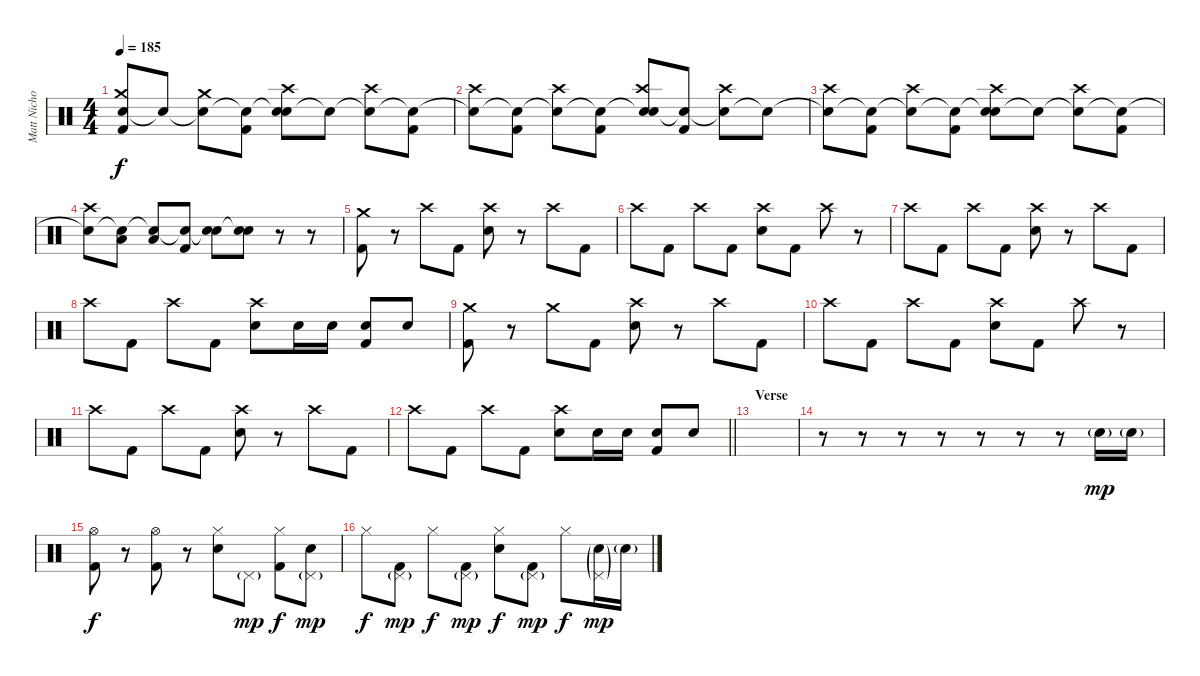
\track ("Matt Nicholls" "Matt Nicho") {instrument percussion}
\staff {score}
\articulation defaults
\ts (4 4)
\tempo 185
\clef neutral
\ks c
("Snare (hit)"{t} "Crash medium (hit)" "Kick (hit) 2").8{dy f} "Snare (hit)"{t}.8 ("Snare (hit)"{t} "Crash medium (hit)").8 ("Snare (hit)"{t} "Kick (hit) 2").8 ("Snare (hit)"{t} "Crash high (hit)" "Electric Snare (hit)").8 "Snare (hit)"{t}.8 ("Snare (hit)"{t} "Crash high (hit)").8 ("Snare (hit)"{t} "Kick (hit) 2").8 |
("Snare (hit)"{t} "Crash high (hit)").8 ("Snare (hit)"{t} "Kick (hit) 2").8 ("Snare (hit)"{t} "Crash high (hit)").8 ("Snare (hit)"{t} "Kick (hit) 2").8 ("Snare (hit)"{t} "Crash high (hit)" "Electric Snare (hit)").8 ("Snare (hit)"{t} "Kick (hit) 2").8 ("Snare (hit)"{t} "Crash high (hit)").8 "Snare (hit)"{t}.8 |
("Snare (hit)"{t} "Crash high (hit)").8 ("Snare (hit)"{t} "Kick (hit) 2").8 ("Snare (hit)"{t} "Crash high (hit)").8 ("Snare (hit)"{t} "Kick (hit) 2").8 ("Snare (hit)"{t} "Crash high (hit)" "Electric Snare (hit)").8 "Snare (hit)"{t}.8 ("Snare (hit)"{t} "Crash high (hit)").8 ("Snare (hit)"{t} "Kick (hit) 2").8 |
("Snare (hit)"{t} "Crash high (hit)").8 ("Snare (hit)"{t} "Low Floor Tom (hit)").8 ("Snare (hit)"{t} "Low Floor Tom (hit)").8 ("Snare (hit)"{t} "Kick (hit) 2").8 ("Snare (hit)"{t} "Electric Snare (hit)").8 ("Snare (hit)"{t} "Electric Snare (hit)").8 r.8 r.8 |
("Crash medium (hit)" "Kick (hit) 2").8 r.8 "Crash high (hit)".8 "Kick (hit) 2".8 ("Crash high (hit)" "Electric Snare (hit)").8 r.8 "Crash high (hit)".8 "Kick (hit) 2".8 |
"Crash high (hit)".8 "Kick (hit) 2".8 "Crash high (hit)".8 "Kick (hit) 2".8 ("Crash high (hit)" "Electric Snare (hit)").8 "Kick (hit) 2".8 "Crash high (hit)".8 r.8 |
"Crash high (hit)".8 "Kick (hit) 2".8 "Crash high (hit)".8 "Kick (hit) 2".8 ("Crash high (hit)" "Electric Snare (hit)").8 r.8 "Crash high (hit)".8 "Kick (hit) 2".8 |
"Crash high (hit)".8 "Kick (hit) 2".8 "Crash high (hit)".8 "Kick (hit) 2".8 ("Crash high (hit)" "Electric Snare (hit)").8 "Electric Snare (hit)".16 "Electric Snare (hit)".16 ("Electric Snare (hit)" "Kick (hit) 2").8 "Electric Snare (hit)".8 |
("Crash medium (hit)" "Kick (hit) 2").8 r.8 "Crash medium (hit)".8 "Kick (hit) 2".8 ("Crash high (hit)" "Electric Snare (hit)").8 r.8 "Crash high (hit)".8 "Kick (hit) 2".8 |
"Crash high (hit)".8 "Kick (hit) 2".8 "Crash high (hit)".8 "Kick (hit) 2".8 ("Crash high (hit)" "Electric Snare (hit)").8 "Kick (hit) 2".8 "Crash high (hit)".8 r.8 |
"Crash high (hit)".8 "Kick (hit) 2".8 "Crash high (hit)".8 "Kick (hit) 2".8 ("Crash high (hit)" "Electric Snare (hit)").8 r.8 "Crash high (hit)".8 "Kick (hit) 2".8 |
\barLineRight lightlight "Crash high (hit)".8 "Kick (hit) 2".8 "Crash high (hit)".8 "Kick (hit) 2".8
("Crash high (hit)" "Electric Snare (hit)").8 "Electric Snare (hit)".16 "Electric Snare (hit)".16 ("Electric Snare (hit)" "Kick (hit) 2").8 "Electric Snare (hit)".8 |
\section ("" "Verse")
|
r.8 r.8 r.8 r.8 r.8 r.8 r.8 "Electric Snare (hit)"{g}.16{dy mp} "Electric Snare (hit)"{g}.16 |
("Hi-Hat (open)" "Kick (hit) 2").8{dy f} r.8 ("Hi-Hat (open)" "Kick (hit) 2").8 r.8 ("Hi-Hat (closed)" "Electric Snare (hit)").8 "Pedal Hi-Hat (hit)"{g}.8{dy mp} ("Hi-Hat (closed)" "Kick (hit) 2").8{dy f} ("Pedal Hi-Hat (hit)"{g} "Electric Snare (hit)").8{dy mp} |
"Hi-Hat (closed)".8{dy f} ("Pedal Hi-Hat (hit)"{g} "Kick (hit) 2").8{dy mp} "Hi-Hat (closed)".8{dy f} ("Pedal Hi-Hat (hit)"{g} "Kick (hit) 2").8{dy mp} ("Hi-Hat (closed)" "Electric Snare (hit)").8{dy f} ("Pedal Hi-Hat (hit)"{g} "Kick (hit) 2").8{dy mp} "Hi-Hat (closed)".8{dy f} ("Pedal Hi-Hat (hit)"{g} "Electric Snare (hit)"{g}).16{dy mp} "Electric Snare (hit)"{g}.16
